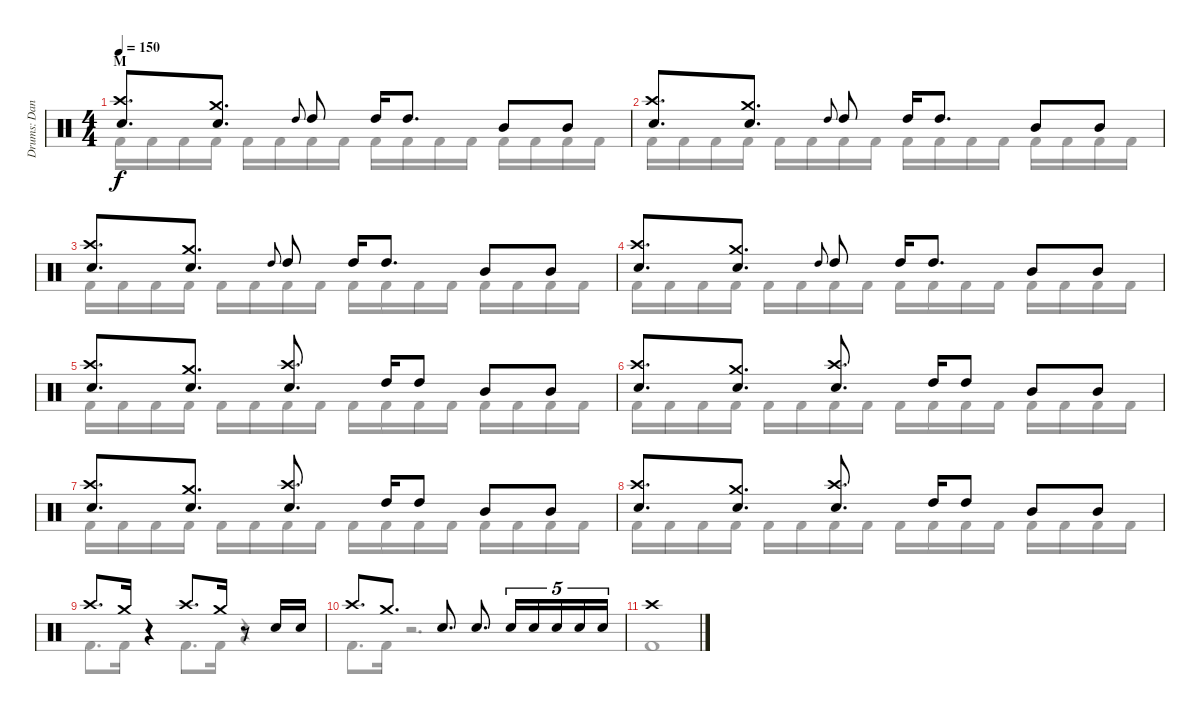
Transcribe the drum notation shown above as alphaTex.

\track ("Drums: Dana" "Drums: Dan") {instrument percussion}
\staff {score}
\articulation defaults
\voice
\ts (4 4)
\section ("" "M")
\tempo 150
\clef neutral
\ks c
("Crash high (hit)" "Snare (hit) 2").8{d dy f} ("Crash medium (hit)" "Snare (hit) 2").8{d} "High Tom (hit)".8{gr onbeat} "High Tom (hit)".8 "High Tom (hit)".16 "High Tom (hit)".8{d} "Mid Tom (hit)".8 "Mid Tom (hit)".8 |
("Crash high (hit)" "Snare (hit) 2").8{d} ("Crash medium (hit)" "Snare (hit) 2").8{d} "High Tom (hit)".8{gr onbeat} "High Tom (hit)".8 "High Tom (hit)".16 "High Tom (hit)".8{d} "Mid Tom (hit)".8 "Mid Tom (hit)".8 |
("Crash high (hit)" "Snare (hit) 2").8{d} ("Crash medium (hit)" "Snare (hit) 2").8{d} "High Tom (hit)".8{gr onbeat} "High Tom (hit)".8 "High Tom (hit)".16 "High Tom (hit)".8{d} "Mid Tom (hit)".8 "Mid Tom (hit)".8 |
("Crash high (hit)" "Snare (hit) 2").8{d} ("Crash medium (hit)" "Snare (hit) 2").8{d} "High Tom (hit)".8{gr onbeat} "High Tom (hit)".8 "High Tom (hit)".16 "High Tom (hit)".8{d} "Mid Tom (hit)".8 "Mid Tom (hit)".8 |
("Crash high (hit)" "Snare (hit) 2").8{d} ("Crash medium (hit)" "Snare (hit) 2").8{d} ("Crash high (hit)" "Snare (hit) 2").8{d} "High Tom (hit)".16 "High Tom (hit)".8 "Mid Tom (hit)".8 "Mid Tom (hit)".8 |
("Crash high (hit)" "Snare (hit) 2").8{d} ("Crash medium (hit)" "Snare (hit) 2").8{d} ("Crash high (hit)" "Snare (hit) 2").8{d} "High Tom (hit)".16 "High Tom (hit)".8 "Mid Tom (hit)".8 "Mid Tom (hit)".8 |
("Crash high (hit)" "Snare (hit) 2").8{d} ("Crash medium (hit)" "Snare (hit) 2").8{d} ("Crash high (hit)" "Snare (hit) 2").8{d} "High Tom (hit)".16 "High Tom (hit)".8 "Mid Tom (hit)".8 "Mid Tom (hit)".8 |
("Crash high (hit)" "Snare (hit) 2").8{d} ("Crash medium (hit)" "Snare (hit) 2").8{d} ("Crash high (hit)" "Snare (hit) 2").8{d} "High Tom (hit)".16 "High Tom (hit)".8 "Mid Tom (hit)".8 "Mid Tom (hit)".8 |
"Crash high (hit)".8{d} "Crash medium (hit)".16 r.4 "Crash high (hit)".8{d} "Crash medium (hit)".16 r.8 "Snare (hit) 2".16 "Snare (hit) 2".16 |
"Crash high (hit)".8{d} "Crash medium (hit)".8{d} "Snare (hit) 2".8{d} "Snare (hit) 2".8{d} "Snare (hit) 2".16{tu (5 4)} "Snare (hit) 2".16{tu (5 4)} "Snare (hit) 2".16{tu (5 4)} "Snare (hit) 2".16{tu (5 4)} "Snare (hit) 2".16{tu (5 4)} |
"Crash high (hit)".1
\voice
\clef neutral
\ottava regular
\simile none
\ks c "Kick (hit) 2".16{dy f} "Kick (hit) 2".16 "Kick (hit) 2".16 "Kick (hit) 2".16 "Kick (hit) 2".16 "Kick (hit) 2".16 "Kick (hit) 2".16 "Kick (hit) 2".16 "Kick (hit) 2".16 "Kick (hit) 2".16 "Kick (hit) 2".16 "Kick (hit) 2".16 "Kick (hit) 2".16 "Kick (hit) 2".16 "Kick (hit) 2".16 "Kick (hit) 2".16
|
"Kick (hit) 2".16 "Kick (hit) 2".16 "Kick (hit) 2".16 "Kick (hit) 2".16 "Kick (hit) 2".16 "Kick (hit) 2".16 "Kick (hit) 2".16 "Kick (hit) 2".16 "Kick (hit) 2".16 "Kick (hit) 2".16 "Kick (hit) 2".16 "Kick (hit) 2".16 "Kick (hit) 2".16 "Kick (hit) 2".16 "Kick (hit) 2".16 "Kick (hit) 2".16 |
"Kick (hit) 2".16 "Kick (hit) 2".16 "Kick (hit) 2".16 "Kick (hit) 2".16 "Kick (hit) 2".16 "Kick (hit) 2".16 "Kick (hit) 2".16 "Kick (hit) 2".16 "Kick (hit) 2".16 "Kick (hit) 2".16 "Kick (hit) 2".16 "Kick (hit) 2".16 "Kick (hit) 2".16 "Kick (hit) 2".16 "Kick (hit) 2".16 "Kick (hit) 2".16 |
"Kick (hit) 2".16 "Kick (hit) 2".16 "Kick (hit) 2".16 "Kick (hit) 2".16 "Kick (hit) 2".16 "Kick (hit) 2".16 "Kick (hit) 2".16 "Kick (hit) 2".16 "Kick (hit) 2".16 "Kick (hit) 2".16 "Kick (hit) 2".16 "Kick (hit) 2".16 "Kick (hit) 2".16 "Kick (hit) 2".16 "Kick (hit) 2".16 "Kick (hit) 2".16 |
"Kick (hit) 2".16 "Kick (hit) 2".16 "Kick (hit) 2".16 "Kick (hit) 2".16 "Kick (hit) 2".16 "Kick (hit) 2".16 "Kick (hit) 2".16 "Kick (hit) 2".16 "Kick (hit) 2".16 "Kick (hit) 2".16 "Kick (hit) 2".16 "Kick (hit) 2".16 "Kick (hit) 2".16 "Kick (hit) 2".16 "Kick (hit) 2".16 "Kick (hit) 2".16 |
"Kick (hit) 2".16 "Kick (hit) 2".16 "Kick (hit) 2".16 "Kick (hit) 2".16 "Kick (hit) 2".16 "Kick (hit) 2".16 "Kick (hit) 2".16 "Kick (hit) 2".16 "Kick (hit) 2".16 "Kick (hit) 2".16 "Kick (hit) 2".16 "Kick (hit) 2".16 "Kick (hit) 2".16 "Kick (hit) 2".16 "Kick (hit) 2".16 "Kick (hit) 2".16 |
"Kick (hit) 2".16 "Kick (hit) 2".16 "Kick (hit) 2".16 "Kick (hit) 2".16 "Kick (hit) 2".16 "Kick (hit) 2".16 "Kick (hit) 2".16 "Kick (hit) 2".16 "Kick (hit) 2".16 "Kick (hit) 2".16 "Kick (hit) 2".16 "Kick (hit) 2".16 "Kick (hit) 2".16 "Kick (hit) 2".16 "Kick (hit) 2".16 "Kick (hit) 2".16 |
"Kick (hit) 2".16 "Kick (hit) 2".16 "Kick (hit) 2".16 "Kick (hit) 2".16 "Kick (hit) 2".16 "Kick (hit) 2".16 "Kick (hit) 2".16 "Kick (hit) 2".16 "Kick (hit) 2".16 "Kick (hit) 2".16 "Kick (hit) 2".16 "Kick (hit) 2".16 "Kick (hit) 2".16 "Kick (hit) 2".16 "Kick (hit) 2".16 "Kick (hit) 2".16 |
"Kick (hit) 2".8{d} "Kick (hit) 2".16 r.4 "Kick (hit) 2".8{d} "Kick (hit) 2".16 r.4 |
"Kick (hit) 2".8{d} "Kick (hit) 2".16 r.2{d} |
"Kick (hit) 2".1
